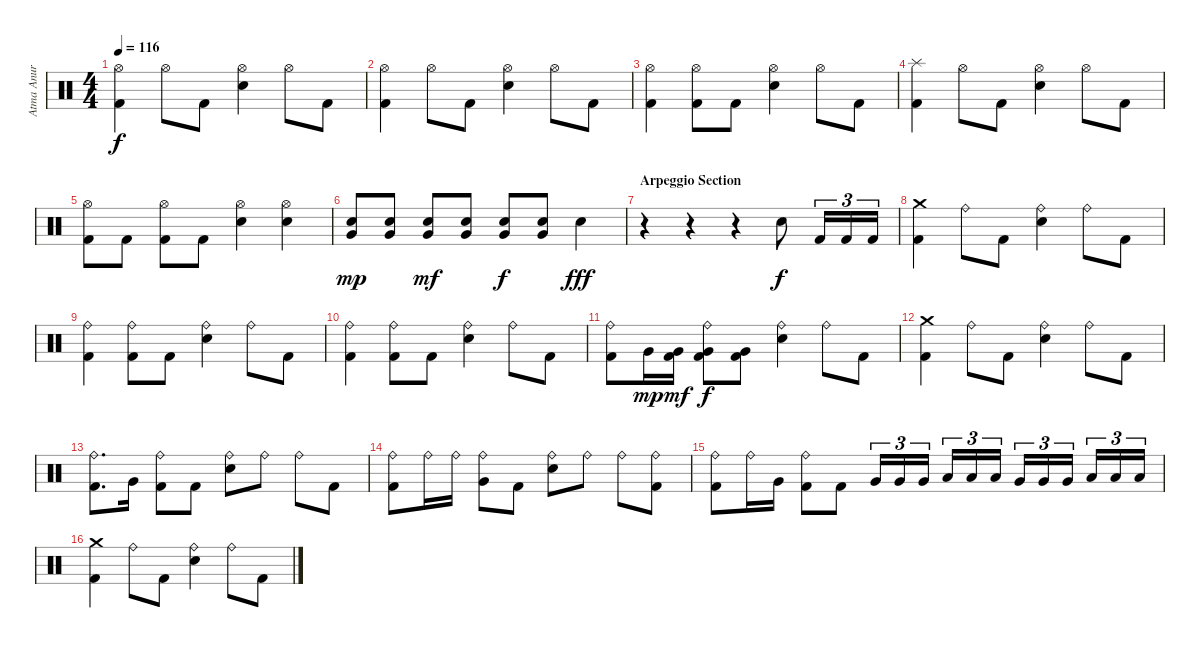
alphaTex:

\track ("Atma Anur " "Atma Anur ") {instrument percussion}
\staff {score}
\articulation defaults
\ts (4 4)
\tempo 116
\clef neutral
\ks c
("Hi-Hat (open)" "Kick (hit) 2").4{dy f} "Hi-Hat (open)".8 "Kick (hit) 2".8 ("Hi-Hat (open)" "Snare (hit) 2").4 "Hi-Hat (open)".8 "Kick (hit) 2".8 |
("Hi-Hat (open)" "Kick (hit) 2").4 "Hi-Hat (open)".8 "Kick (hit) 2".8 ("Hi-Hat (open)" "Snare (hit) 2").4 "Hi-Hat (open)".8 "Kick (hit) 2".8 |
("Hi-Hat (open)" "Kick (hit) 2").4 ("Hi-Hat (open)" "Kick (hit) 2").8 "Kick (hit) 2".8 ("Hi-Hat (open)" "Snare (hit) 2").4 "Hi-Hat (open)".8 "Kick (hit) 2".8 |
("Splash (hit)" "Kick (hit) 2").4 "Hi-Hat (open)".8 "Kick (hit) 2".8 ("Hi-Hat (open)" "Snare (hit) 2").4 "Hi-Hat (open)".8 "Kick (hit) 2".8 |
("Hi-Hat (open)" "Kick (hit) 2").8 "Kick (hit) 2".8 ("Hi-Hat (open)" "Kick (hit) 2").8 "Kick (hit) 2".8 ("Hi-Hat (open)" "Snare (hit) 2").4 ("Hi-Hat (open)" "Snare (hit) 2").4 |
("Very Low Tom (hit)" "Snare (hit) 2").8{dy mp} ("Very Low Tom (hit)" "Snare (hit) 2").8 ("Very Low Tom (hit)" "Snare (hit) 2").8{dy mf} ("Very Low Tom (hit)" "Snare (hit) 2").8 ("Very Low Tom (hit)" "Snare (hit) 2").8{dy f} ("Very Low Tom (hit)" "Snare (hit) 2").8 "Snare (hit) 2".4{dy fff} |
\section ("" "Arpeggio Section")
r.4 r.4 r.4 "Snare (hit) 2".8{dy f} "Kick (hit) 2".16{tu (3 2)} "Kick (hit) 2".16{tu (3 2)} "Kick (hit) 2".16{tu (3 2)} |
("Crash medium (hit)" "Kick (hit) 2").4 "Ride (bell)".8 "Kick (hit) 2".8 ("Ride (bell)" "Snare (hit) 2").4 "Ride (bell)".8 "Kick (hit) 2".8 |
("Ride (bell)" "Kick (hit) 2").4 ("Ride (bell)" "Kick (hit) 2").8 "Kick (hit) 2".8 ("Ride (bell)" "Snare (hit) 2").4 "Ride (bell)".8 "Kick (hit) 2".8 |
("Ride (bell)" "Kick (hit) 2").4 ("Ride (bell)" "Kick (hit) 2").8 "Kick (hit) 2".8 ("Ride (bell)" "Snare (hit) 2").4 "Ride (bell)".8 "Kick (hit) 2".8 |
("Ride (bell)" "Kick (hit) 2").8 "Very Low Tom (hit)".16{dy mp} ("Very Low Tom (hit)" "Kick (hit) 2").16{dy mf} ("Ride (bell)" "Very Low Tom (hit)" "Kick (hit) 2").8{dy f} ("Very Low Tom (hit)" "Kick (hit) 2").8 ("Ride (bell)" "Snare (hit) 2").4 "Ride (bell)".8 "Kick (hit) 2".8 |
("Crash medium (hit)" "Kick (hit) 2").4 "Ride (bell)".8 "Kick (hit) 2".8 ("Ride (bell)" "Snare (hit) 2").4 "Ride (bell)".8 "Kick (hit) 2".8 |
("Ride (bell)" "Kick (hit) 2").8{d} "Very Low Tom (hit)".16 ("Ride (bell)" "Kick (hit) 2").8 "Kick (hit) 2".8 ("Ride (bell)" "Snare (hit) 2").8 "Ride (bell)".8 "Ride (bell)".8 "Kick (hit) 2".8 |
("Ride (bell)" "Kick (hit) 2").8 "Ride (bell)".16 "Ride (bell)".16 ("Ride (bell)" "Very Low Tom (hit)").8 "Kick (hit) 2".8 ("Ride (bell)" "Snare (hit) 2").8 "Ride (bell)".8 "Ride (bell)".8 ("Ride (bell)" "Kick (hit) 2").8 |
("Ride (bell)" "Kick (hit) 2").8 "Ride (bell)".16 "Very Low Tom (hit)".16 ("Ride (bell)" "Kick (hit) 2").8 "Kick (hit) 2".8 "Very Low Tom (hit)".16{tu (3 2)} "Very Low Tom (hit)".16{tu (3 2)} "Very Low Tom (hit)".16{tu (3 2)} "Low Tom (hit)".16{tu (3 2)} "Low Tom (hit)".16{tu (3 2)} "Low Tom (hit)".16{tu (3 2)} "Very Low Tom (hit)".16{tu (3 2)} "Very Low Tom (hit)".16{tu (3 2)} "Very Low Tom (hit)".16{tu (3 2)} "Low Floor Tom (hit)".16{tu (3 2)} "Low Floor Tom (hit)".16{tu (3 2)} "Low Floor Tom (hit)".16{tu (3 2)} |
("Crash medium (hit)" "Kick (hit) 2").4 "Ride (bell)".8 "Kick (hit) 2".8 ("Ride (bell)" "Snare (hit) 2").4 "Ride (bell)".8 "Kick (hit) 2".8
